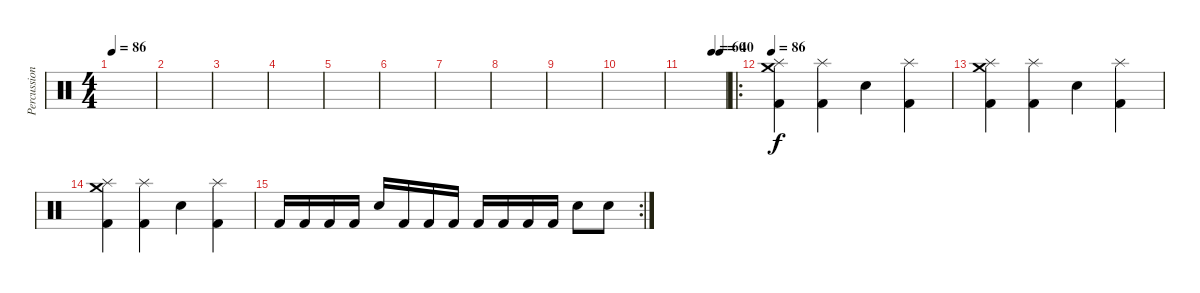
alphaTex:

\track ("Percussion" "Percussion") {instrument percussion}
\staff {score}
\articulation defaults
\ts (4 4)
\tempo 86
\clef neutral
\ks c
|
|
|
|
|
|
|
|
|
|
\tempo (60 0.6875)
\tempo (40 0.875)
|
\ro
\tempo 86
("Splash (hit)" "Crash medium (hit)" "Kick (hit) 2").4 ("Splash (hit)" "Kick (hit) 2").4 "Snare (hit) 2".4 ("Splash (hit)" "Kick (hit) 2").4 |
("Splash (hit)" "Crash medium (hit)" "Kick (hit) 2").4 ("Splash (hit)" "Kick (hit) 2").4 "Snare (hit) 2".4 ("Splash (hit)" "Kick (hit) 2").4 |
("Splash (hit)" "Crash medium (hit)" "Kick (hit) 2").4 ("Splash (hit)" "Kick (hit) 2").4 "Snare (hit) 2".4 ("Splash (hit)" "Kick (hit) 2").4 |
\rc 2 "Kick (hit) 2".16 "Kick (hit) 2".16 "Kick (hit) 2".16 "Kick (hit) 2".16 "Snare (hit) 2".16 "Kick (hit) 2".16 "Kick (hit) 2".16 "Kick (hit) 2".16 "Kick (hit) 2".16 "Kick (hit) 2".16 "Kick (hit) 2".16 "Kick (hit) 2".16 "Snare (hit) 2".8 "Snare (hit) 2".8
